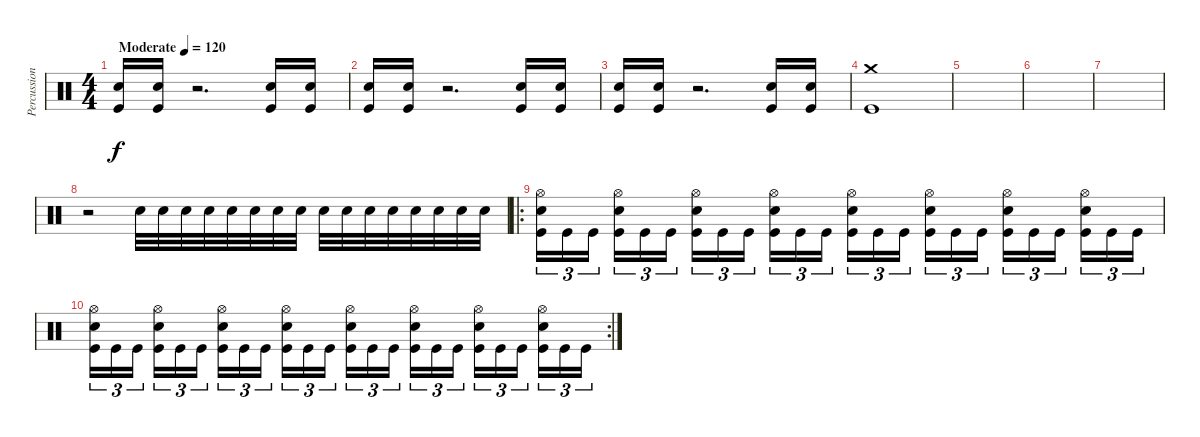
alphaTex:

\track ("Percussion" "Percussion") {instrument percussion}
\staff {score}
\articulation defaults
\ts (4 4)
\tempo (120 "Moderate")
\clef neutral
\ks c
("Snare (hit) 2" "Kick (hit)").16{dy f} ("Snare (hit) 2" "Kick (hit)").16 r.2{d} ("Snare (hit) 2" "Kick (hit)").16 ("Snare (hit) 2" "Kick (hit)").16 |
("Snare (hit) 2" "Kick (hit)").16 ("Snare (hit) 2" "Kick (hit)").16 r.2{d} ("Snare (hit) 2" "Kick (hit)").16 ("Snare (hit) 2" "Kick (hit)").16 |
("Snare (hit) 2" "Kick (hit)").16 ("Snare (hit) 2" "Kick (hit)").16 r.2{d} ("Snare (hit) 2" "Kick (hit)").16 ("Snare (hit) 2" "Kick (hit)").16 |
("Crash medium (hit)" "Kick (hit)").1 |
|
|
|
r.2 "Snare (hit) 2".32 "Snare (hit) 2".32 "Snare (hit) 2".32 "Snare (hit) 2".32 "Snare (hit) 2".32 "Snare (hit) 2".32 "Snare (hit) 2".32 "Snare (hit) 2".32 "Snare (hit) 2".32 "Snare (hit) 2".32 "Snare (hit) 2".32 "Snare (hit) 2".32 "Snare (hit) 2".32 "Snare (hit) 2".32 "Snare (hit) 2".32 "Snare (hit) 2".32 |
\ro
("Hi-Hat (open)" "Snare (hit) 2" "Kick (hit)").16{tu (3 2)} "Kick (hit)".16{tu (3 2)} "Kick (hit)".16{tu (3 2) beam splitsecondary} ("Hi-Hat (open)" "Snare (hit) 2" "Kick (hit)").16{tu (3 2)} "Kick (hit)".16{tu (3 2)} "Kick (hit)".16{tu (3 2)} ("Hi-Hat (open)" "Snare (hit) 2" "Kick (hit)").16{tu (3 2)} "Kick (hit)".16{tu (3 2)} "Kick (hit)".16{tu (3 2) beam splitsecondary} ("Hi-Hat (open)" "Snare (hit) 2" "Kick (hit)").16{tu (3 2)} "Kick (hit)".16{tu (3 2)} "Kick (hit)".16{tu (3 2)} ("Hi-Hat (open)" "Snare (hit) 2" "Kick (hit)").16{tu (3 2)} "Kick (hit)".16{tu (3 2)} "Kick (hit)".16{tu (3 2) beam splitsecondary} ("Hi-Hat (open)" "Snare (hit) 2" "Kick (hit)").16{tu (3 2)} "Kick (hit)".16{tu (3 2)} "Kick (hit)".16{tu (3 2)} ("Hi-Hat (open)" "Snare (hit) 2" "Kick (hit)").16{tu (3 2)} "Kick (hit)".16{tu (3 2)} "Kick (hit)".16{tu (3 2) beam splitsecondary} ("Hi-Hat (open)" "Snare (hit) 2" "Kick (hit)").16{tu (3 2)} "Kick (hit)".16{tu (3 2)} "Kick (hit)".16{tu (3 2)} |
\rc 2
("Hi-Hat (open)" "Snare (hit) 2" "Kick (hit)").16{tu (3 2)} "Kick (hit)".16{tu (3 2)} "Kick (hit)".16{tu (3 2) beam splitsecondary} ("Hi-Hat (open)" "Snare (hit) 2" "Kick (hit)").16{tu (3 2)} "Kick (hit)".16{tu (3 2)} "Kick (hit)".16{tu (3 2)} ("Hi-Hat (open)" "Snare (hit) 2" "Kick (hit)").16{tu (3 2)} "Kick (hit)".16{tu (3 2)} "Kick (hit)".16{tu (3 2) beam splitsecondary} ("Hi-Hat (open)" "Snare (hit) 2" "Kick (hit)").16{tu (3 2)} "Kick (hit)".16{tu (3 2)} "Kick (hit)".16{tu (3 2)} ("Hi-Hat (open)" "Snare (hit) 2" "Kick (hit)").16{tu (3 2)} "Kick (hit)".16{tu (3 2)} "Kick (hit)".16{tu (3 2) beam splitsecondary} ("Hi-Hat (open)" "Snare (hit) 2" "Kick (hit)").16{tu (3 2)} "Kick (hit)".16{tu (3 2)} "Kick (hit)".16{tu (3 2)} ("Hi-Hat (open)" "Snare (hit) 2" "Kick (hit)").16{tu (3 2)} "Kick (hit)".16{tu (3 2)} "Kick (hit)".16{tu (3 2) beam splitsecondary} ("Hi-Hat (open)" "Snare (hit) 2" "Kick (hit)").16{tu (3 2)} "Kick (hit)".16{tu (3 2)} "Kick (hit)".16{tu (3 2)}
